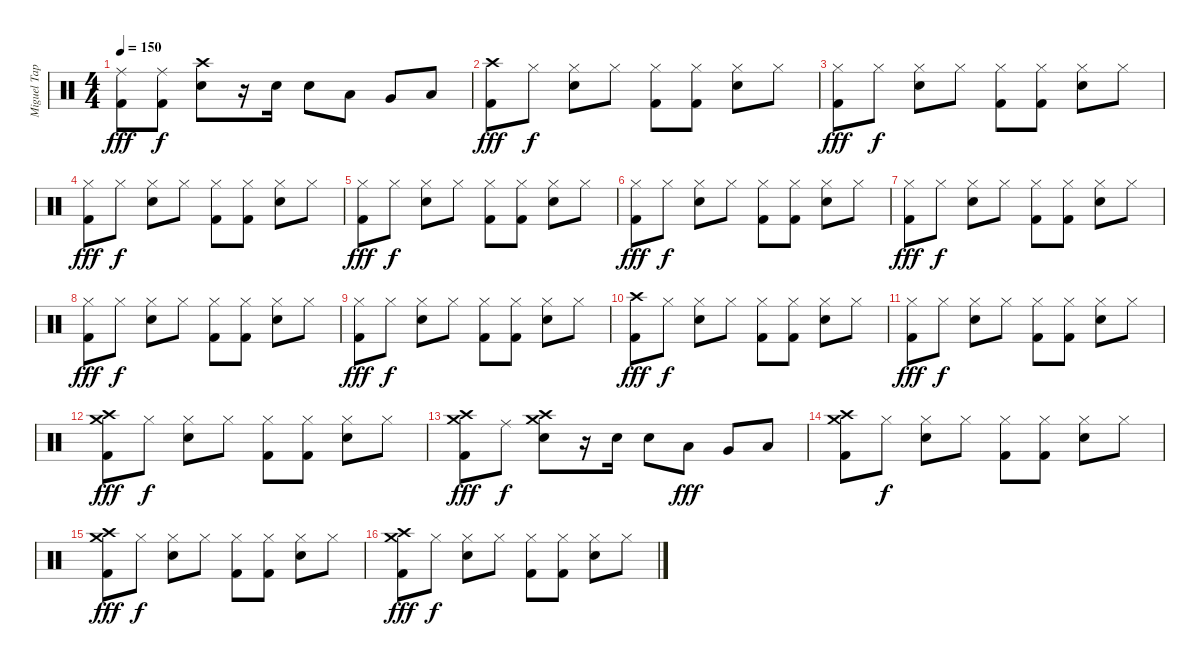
\track ("Miguel Tapia" "Miguel Tap") {instrument percussion}
\staff {score}
\articulation defaults
\ts (4 4)
\tempo 150
\clef neutral
\ks c
("Ride (middle)" "Kick (hit) 2").8{dy fff} ("Ride (middle)" "Kick (hit) 2").8{dy f} ("Crash high (hit)" "Snare (hit) 2").8 r.16 "Snare (hit) 2".16 "Snare (hit) 2".8 "Low Tom (hit)".8 "Very Low Tom (hit)".8 "Low Floor Tom (hit)".8 |
("Crash high (hit)" "Kick (hit) 2").8{dy fff} "Hi-Hat (closed)".8{dy f} ("Hi-Hat (closed)" "Snare (hit) 2").8 "Hi-Hat (closed)".8 ("Hi-Hat (closed)" "Kick (hit) 2").8 ("Hi-Hat (closed)" "Kick (hit) 2").8 ("Hi-Hat (closed)" "Snare (hit) 2").8 "Hi-Hat (closed)".8 |
("Hi-Hat (closed)" "Kick (hit) 2").8{dy fff} "Hi-Hat (closed)".8{dy f} ("Hi-Hat (closed)" "Snare (hit) 2").8 "Hi-Hat (closed)".8 ("Hi-Hat (closed)" "Kick (hit) 2").8 ("Hi-Hat (closed)" "Kick (hit) 2").8 ("Hi-Hat (closed)" "Snare (hit) 2").8 "Hi-Hat (closed)".8 |
("Hi-Hat (closed)" "Kick (hit) 2").8{dy fff} "Hi-Hat (closed)".8{dy f} ("Hi-Hat (closed)" "Snare (hit) 2").8 "Hi-Hat (closed)".8 ("Hi-Hat (closed)" "Kick (hit) 2").8 ("Hi-Hat (closed)" "Kick (hit) 2").8 ("Hi-Hat (closed)" "Snare (hit) 2").8 "Hi-Hat (closed)".8 |
("Hi-Hat (closed)" "Kick (hit) 2").8{dy fff} "Hi-Hat (closed)".8{dy f} ("Hi-Hat (closed)" "Snare (hit) 2").8 "Hi-Hat (closed)".8 ("Hi-Hat (closed)" "Kick (hit) 2").8 ("Hi-Hat (closed)" "Kick (hit) 2").8 ("Hi-Hat (closed)" "Snare (hit) 2").8 "Hi-Hat (closed)".8 |
("Hi-Hat (closed)" "Kick (hit) 2").8{dy fff} "Hi-Hat (closed)".8{dy f} ("Hi-Hat (closed)" "Snare (hit) 2").8 "Hi-Hat (closed)".8 ("Hi-Hat (closed)" "Kick (hit) 2").8 ("Hi-Hat (closed)" "Kick (hit) 2").8 ("Hi-Hat (closed)" "Snare (hit) 2").8 "Hi-Hat (closed)".8 |
("Hi-Hat (closed)" "Kick (hit) 2").8{dy fff} "Hi-Hat (closed)".8{dy f} ("Hi-Hat (closed)" "Snare (hit) 2").8 "Hi-Hat (closed)".8 ("Hi-Hat (closed)" "Kick (hit) 2").8 ("Hi-Hat (closed)" "Kick (hit) 2").8 ("Hi-Hat (closed)" "Snare (hit) 2").8 "Hi-Hat (closed)".8 |
("Hi-Hat (closed)" "Kick (hit) 2").8{dy fff} "Hi-Hat (closed)".8{dy f} ("Hi-Hat (closed)" "Snare (hit) 2").8 "Hi-Hat (closed)".8 ("Hi-Hat (closed)" "Kick (hit) 2").8 ("Hi-Hat (closed)" "Kick (hit) 2").8 ("Hi-Hat (closed)" "Snare (hit) 2").8 "Hi-Hat (closed)".8 |
("Hi-Hat (closed)" "Kick (hit) 2").8{dy fff} "Hi-Hat (closed)".8{dy f} ("Hi-Hat (closed)" "Snare (hit) 2").8 "Hi-Hat (closed)".8 ("Hi-Hat (closed)" "Kick (hit) 2").8 ("Hi-Hat (closed)" "Kick (hit) 2").8 ("Hi-Hat (closed)" "Snare (hit) 2").8 "Hi-Hat (closed)".8 |
("Crash high (hit)" "Kick (hit) 2").8{dy fff} "Hi-Hat (closed)".8{dy f} ("Hi-Hat (closed)" "Snare (hit) 2").8 "Hi-Hat (closed)".8 ("Hi-Hat (closed)" "Kick (hit) 2").8 ("Hi-Hat (closed)" "Kick (hit) 2").8 ("Hi-Hat (closed)" "Snare (hit) 2").8 "Hi-Hat (closed)".8 |
("Hi-Hat (closed)" "Kick (hit) 2").8{dy fff} "Hi-Hat (closed)".8{dy f} ("Hi-Hat (closed)" "Snare (hit) 2").8 "Hi-Hat (closed)".8 ("Hi-Hat (closed)" "Kick (hit) 2").8 ("Hi-Hat (closed)" "Kick (hit) 2").8 ("Hi-Hat (closed)" "Snare (hit) 2").8 "Hi-Hat (closed)".8 |
("Crash high (hit)" "Crash medium (hit)" "Kick (hit) 2").8{dy fff} "Hi-Hat (closed)".8{dy f} ("Hi-Hat (closed)" "Snare (hit) 2").8 "Hi-Hat (closed)".8 ("Hi-Hat (closed)" "Kick (hit) 2").8 ("Hi-Hat (closed)" "Kick (hit) 2").8 ("Hi-Hat (closed)" "Snare (hit) 2").8 "Hi-Hat (closed)".8 |
("Crash high (hit)" "Crash medium (hit)" "Kick (hit) 2").8{dy fff} "Ride (middle)".8{dy f} ("Crash high (hit)" "Snare (hit) 2" "Crash medium (hit)").8 r.16 "Snare (hit) 2".16 "Snare (hit) 2".8 "Low Tom (hit)".8{dy fff} "Very Low Tom (hit)".8 "Low Floor Tom (hit)".8 |
("Crash high (hit)" "Crash medium (hit)" "Kick (hit) 2").8 "Hi-Hat (closed)".8{dy f} ("Hi-Hat (closed)" "Snare (hit) 2").8 "Hi-Hat (closed)".8 ("Hi-Hat (closed)" "Kick (hit) 2").8 ("Hi-Hat (closed)" "Kick (hit) 2").8 ("Hi-Hat (closed)" "Snare (hit) 2").8 "Hi-Hat (closed)".8 |
("Crash high (hit)" "Crash medium (hit)" "Kick (hit) 2").8{dy fff} "Hi-Hat (closed)".8{dy f} ("Hi-Hat (closed)" "Snare (hit) 2").8 "Hi-Hat (closed)".8 ("Hi-Hat (closed)" "Kick (hit) 2").8 ("Hi-Hat (closed)" "Kick (hit) 2").8 ("Hi-Hat (closed)" "Snare (hit) 2").8 "Hi-Hat (closed)".8 |
("Crash high (hit)" "Crash medium (hit)" "Kick (hit) 2").8{dy fff} "Hi-Hat (closed)".8{dy f} ("Hi-Hat (closed)" "Snare (hit) 2").8 "Hi-Hat (closed)".8 ("Hi-Hat (closed)" "Kick (hit) 2").8 ("Hi-Hat (closed)" "Kick (hit) 2").8 ("Hi-Hat (closed)" "Snare (hit) 2").8 "Hi-Hat (closed)".8
